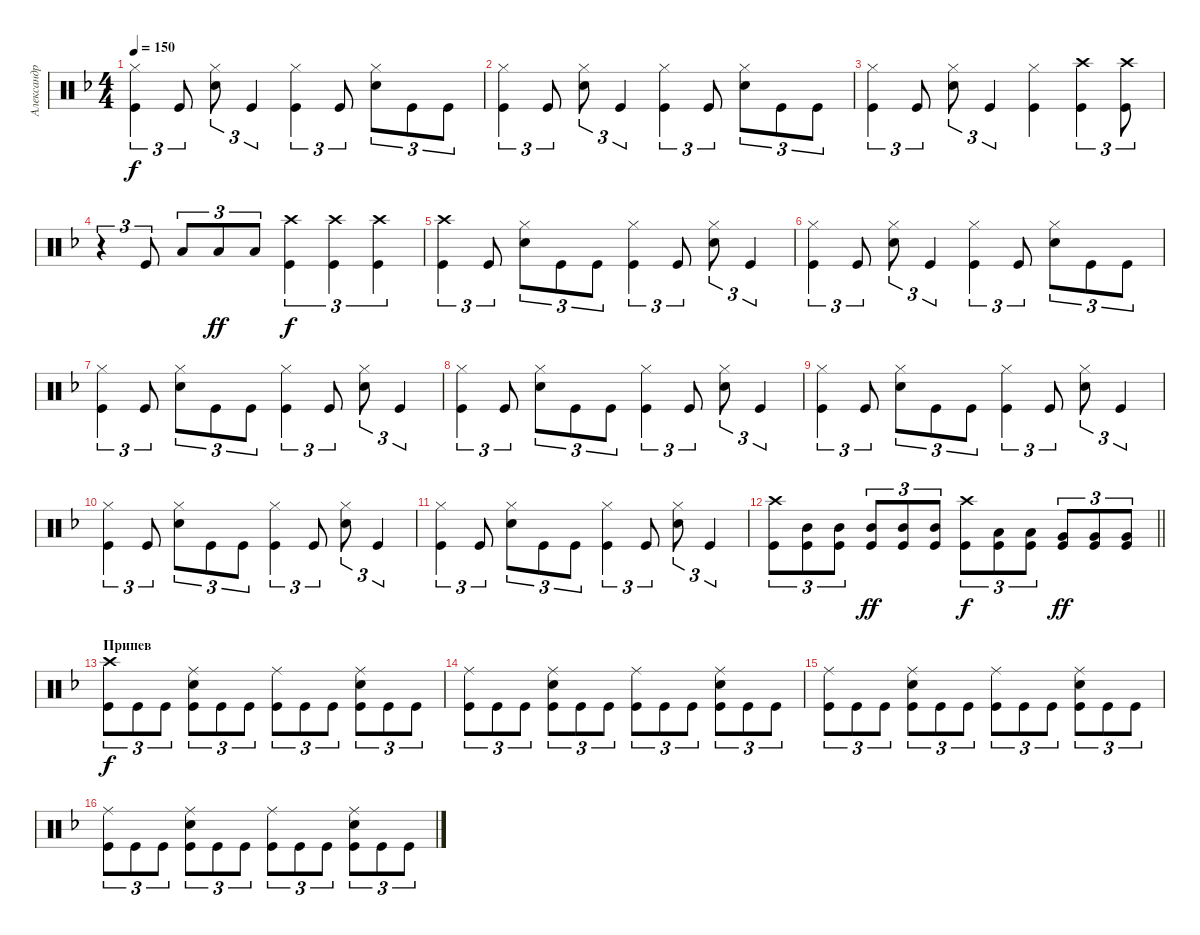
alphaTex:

\track ("Александр Манякин" "Александр ") {instrument percussion}
\staff {score}
\articulation defaults
\ts (4 4)
\tempo 150
\clef neutral
\ks dminor
("Kick (hit)" "Hi-Hat (closed)").4{tu (3 2) dy f} "Kick (hit)".8{tu (3 2)} ("Snare (hit) 2" "Hi-Hat (closed)").8{tu (3 2)} "Kick (hit)".4{tu (3 2)} ("Kick (hit)" "Hi-Hat (closed)").4{tu (3 2)} "Kick (hit)".8{tu (3 2)} ("Snare (hit) 2" "Hi-Hat (closed)").8{tu (3 2)} "Kick (hit)".8{tu (3 2)} "Kick (hit)".8{tu (3 2)} |
("Kick (hit)" "Hi-Hat (closed)").4{tu (3 2)} "Kick (hit)".8{tu (3 2)} ("Snare (hit) 2" "Hi-Hat (closed)").8{tu (3 2)} "Kick (hit)".4{tu (3 2)} ("Kick (hit)" "Hi-Hat (closed)").4{tu (3 2)} "Kick (hit)".8{tu (3 2)} ("Snare (hit) 2" "Hi-Hat (closed)").8{tu (3 2)} "Kick (hit)".8{tu (3 2)} "Kick (hit)".8{tu (3 2)} |
("Kick (hit)" "Hi-Hat (closed)").4{tu (3 2)} "Kick (hit)".8{tu (3 2)} ("Snare (hit) 2" "Hi-Hat (closed)").8{tu (3 2)} "Kick (hit)".4{tu (3 2)} ("Kick (hit)" "Hi-Hat (closed)").4 ("Kick (hit)" "Crash high (hit)").4{tu (3 2)} ("Kick (hit)" "Crash high (hit)").8{tu (3 2)} |
r.4{tu (3 2)} "Kick (hit)".8{tu (3 2)} "Low Tom (hit)".8{tu (3 2)} "Low Tom (hit)".8{tu (3 2) dy ff} "Low Tom (hit)".8{tu (3 2)} ("Kick (hit)" "Crash high (hit)").4{tu (3 2) dy f} ("Kick (hit)" "Crash high (hit)").4{tu (3 2)} ("Kick (hit)" "Crash high (hit)").4{tu (3 2)} |
("Kick (hit)" "Crash high (hit)").4{tu (3 2)} "Kick (hit)".8{tu (3 2)} ("Snare (hit) 2" "Hi-Hat (closed)").8{tu (3 2)} "Kick (hit)".8{tu (3 2)} "Kick (hit)".8{tu (3 2)} ("Kick (hit)" "Hi-Hat (closed)").4{tu (3 2)} "Kick (hit)".8{tu (3 2)} ("Snare (hit) 2" "Hi-Hat (closed)").8{tu (3 2)} "Kick (hit)".4{tu (3 2)} |
("Kick (hit)" "Hi-Hat (closed)").4{tu (3 2)} "Kick (hit)".8{tu (3 2)} ("Snare (hit) 2" "Hi-Hat (closed)").8{tu (3 2)} "Kick (hit)".4{tu (3 2)} ("Kick (hit)" "Hi-Hat (closed)").4{tu (3 2)} "Kick (hit)".8{tu (3 2)} ("Snare (hit) 2" "Hi-Hat (closed)").8{tu (3 2)} "Kick (hit)".8{tu (3 2)} "Kick (hit)".8{tu (3 2)} |
("Kick (hit)" "Hi-Hat (closed)").4{tu (3 2)} "Kick (hit)".8{tu (3 2)} ("Snare (hit) 2" "Hi-Hat (closed)").8{tu (3 2)} "Kick (hit)".8{tu (3 2)} "Kick (hit)".8{tu (3 2)} ("Kick (hit)" "Hi-Hat (closed)").4{tu (3 2)} "Kick (hit)".8{tu (3 2)} ("Snare (hit) 2" "Hi-Hat (closed)").8{tu (3 2)} "Kick (hit)".4{tu (3 2)} |
("Kick (hit)" "Hi-Hat (closed)").4{tu (3 2)} "Kick (hit)".8{tu (3 2)} ("Snare (hit) 2" "Hi-Hat (closed)").8{tu (3 2)} "Kick (hit)".8{tu (3 2)} "Kick (hit)".8{tu (3 2)} ("Kick (hit)" "Hi-Hat (closed)").4{tu (3 2)} "Kick (hit)".8{tu (3 2)} ("Snare (hit) 2" "Hi-Hat (closed)").8{tu (3 2)} "Kick (hit)".4{tu (3 2)} |
("Kick (hit)" "Hi-Hat (closed)").4{tu (3 2)} "Kick (hit)".8{tu (3 2)} ("Snare (hit) 2" "Hi-Hat (closed)").8{tu (3 2)} "Kick (hit)".8{tu (3 2)} "Kick (hit)".8{tu (3 2)} ("Kick (hit)" "Hi-Hat (closed)").4{tu (3 2)} "Kick (hit)".8{tu (3 2)} ("Snare (hit) 2" "Hi-Hat (closed)").8{tu (3 2)} "Kick (hit)".4{tu (3 2)} |
("Kick (hit)" "Hi-Hat (closed)").4{tu (3 2)} "Kick (hit)".8{tu (3 2)} ("Snare (hit) 2" "Hi-Hat (closed)").8{tu (3 2)} "Kick (hit)".8{tu (3 2)} "Kick (hit)".8{tu (3 2)} ("Kick (hit)" "Hi-Hat (closed)").4{tu (3 2)} "Kick (hit)".8{tu (3 2)} ("Snare (hit) 2" "Hi-Hat (closed)").8{tu (3 2)} "Kick (hit)".4{tu (3 2)} |
("Kick (hit)" "Hi-Hat (closed)").4{tu (3 2)} "Kick (hit)".8{tu (3 2)} ("Snare (hit) 2" "Hi-Hat (closed)").8{tu (3 2)} "Kick (hit)".8{tu (3 2)} "Kick (hit)".8{tu (3 2)} ("Kick (hit)" "Hi-Hat (closed)").4{tu (3 2)} "Kick (hit)".8{tu (3 2)} ("Snare (hit) 2" "Hi-Hat (closed)").8{tu (3 2)} "Kick (hit)".4{tu (3 2)} |
\barLineRight lightlight
("Kick (hit)" "Crash high (hit)").8{tu (3 2)} ("Mid Tom (hit)" "Kick (hit)").8{tu (3 2)} ("Mid Tom (hit)" "Kick (hit)").8{tu (3 2)} ("Mid Tom (hit)" "Kick (hit)").8{tu (3 2) dy ff} ("Mid Tom (hit)" "Kick (hit)").8{tu (3 2)} ("Mid Tom (hit)" "Kick (hit)").8{tu (3 2)} ("Kick (hit)" "Crash high (hit)").8{tu (3 2) dy f} ("Low Tom (hit)" "Kick (hit)").8{tu (3 2)} ("Low Tom (hit)" "Kick (hit)").8{tu (3 2)} ("Very Low Tom (hit)" "Kick (hit)").8{tu (3 2) dy ff} ("Very Low Tom (hit)" "Kick (hit)").8{tu (3 2)} ("Very Low Tom (hit)" "Kick (hit)").8{tu (3 2)} |
\section ("" "Припев")
("Kick (hit)" "Crash high (hit)").8{tu (3 2) dy f} "Kick (hit)".8{tu (3 2)} "Kick (hit)".8{tu (3 2)} ("Snare (hit) 2" "Kick (hit)" "Ride (middle)").8{tu (3 2)} "Kick (hit)".8{tu (3 2)} "Kick (hit)".8{tu (3 2)} ("Kick (hit)" "Ride (middle)").8{tu (3 2)} "Kick (hit)".8{tu (3 2)} "Kick (hit)".8{tu (3 2)} ("Kick (hit)" "Snare (hit) 2" "Ride (middle)").8{tu (3 2)} "Kick (hit)".8{tu (3 2)} "Kick (hit)".8{tu (3 2)} |
("Kick (hit)" "Ride (middle)").8{tu (3 2)} "Kick (hit)".8{tu (3 2)} "Kick (hit)".8{tu (3 2)} ("Snare (hit) 2" "Kick (hit)" "Ride (middle)").8{tu (3 2)} "Kick (hit)".8{tu (3 2)} "Kick (hit)".8{tu (3 2)} ("Kick (hit)" "Ride (middle)").8{tu (3 2)} "Kick (hit)".8{tu (3 2)} "Kick (hit)".8{tu (3 2)} ("Kick (hit)" "Snare (hit) 2" "Ride (middle)").8{tu (3 2)} "Kick (hit)".8{tu (3 2)} "Kick (hit)".8{tu (3 2)} |
("Kick (hit)" "Ride (middle)").8{tu (3 2)} "Kick (hit)".8{tu (3 2)} "Kick (hit)".8{tu (3 2)} ("Snare (hit) 2" "Kick (hit)" "Ride (middle)").8{tu (3 2)} "Kick (hit)".8{tu (3 2)} "Kick (hit)".8{tu (3 2)} ("Kick (hit)" "Ride (middle)").8{tu (3 2)} "Kick (hit)".8{tu (3 2)} "Kick (hit)".8{tu (3 2)} ("Kick (hit)" "Snare (hit) 2" "Ride (middle)").8{tu (3 2)} "Kick (hit)".8{tu (3 2)} "Kick (hit)".8{tu (3 2)} |
("Kick (hit)" "Ride (middle)").8{tu (3 2)} "Kick (hit)".8{tu (3 2)} "Kick (hit)".8{tu (3 2)} ("Snare (hit) 2" "Kick (hit)" "Ride (middle)").8{tu (3 2)} "Kick (hit)".8{tu (3 2)} "Kick (hit)".8{tu (3 2)} ("Kick (hit)" "Ride (middle)").8{tu (3 2)} "Kick (hit)".8{tu (3 2)} "Kick (hit)".8{tu (3 2)} ("Kick (hit)" "Snare (hit) 2" "Ride (middle)").8{tu (3 2)} "Kick (hit)".8{tu (3 2)} "Kick (hit)".8{tu (3 2)}
